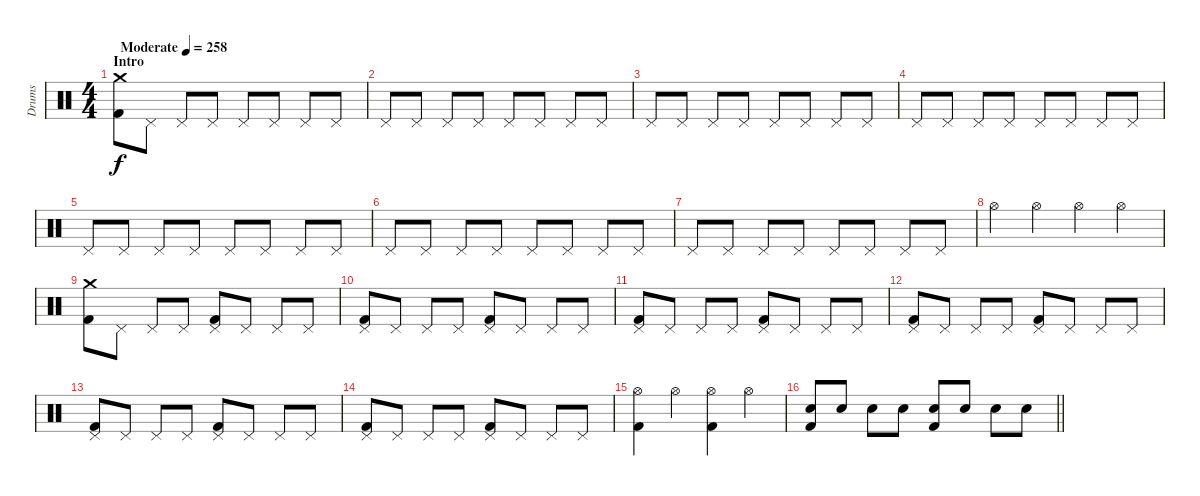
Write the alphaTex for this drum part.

\track ("Drums" "Drums") {instrument percussion}
\staff {score}
\articulation defaults
\ts (4 4)
\section ("" "Intro")
\tempo (258 "Moderate")
\clef neutral
\ks c
("Crash medium (hit)" "Kick (hit) 2").8{dy f} "Pedal Hi-Hat (hit)".8 "Pedal Hi-Hat (hit)".8 "Pedal Hi-Hat (hit)".8 "Pedal Hi-Hat (hit)".8 "Pedal Hi-Hat (hit)".8 "Pedal Hi-Hat (hit)".8 "Pedal Hi-Hat (hit)".8 |
"Pedal Hi-Hat (hit)".8 "Pedal Hi-Hat (hit)".8 "Pedal Hi-Hat (hit)".8 "Pedal Hi-Hat (hit)".8 "Pedal Hi-Hat (hit)".8 "Pedal Hi-Hat (hit)".8 "Pedal Hi-Hat (hit)".8 "Pedal Hi-Hat (hit)".8 |
"Pedal Hi-Hat (hit)".8 "Pedal Hi-Hat (hit)".8 "Pedal Hi-Hat (hit)".8 "Pedal Hi-Hat (hit)".8 "Pedal Hi-Hat (hit)".8 "Pedal Hi-Hat (hit)".8 "Pedal Hi-Hat (hit)".8 "Pedal Hi-Hat (hit)".8 |
"Pedal Hi-Hat (hit)".8 "Pedal Hi-Hat (hit)".8 "Pedal Hi-Hat (hit)".8 "Pedal Hi-Hat (hit)".8 "Pedal Hi-Hat (hit)".8 "Pedal Hi-Hat (hit)".8 "Pedal Hi-Hat (hit)".8 "Pedal Hi-Hat (hit)".8 |
"Pedal Hi-Hat (hit)".8 "Pedal Hi-Hat (hit)".8 "Pedal Hi-Hat (hit)".8 "Pedal Hi-Hat (hit)".8 "Pedal Hi-Hat (hit)".8 "Pedal Hi-Hat (hit)".8 "Pedal Hi-Hat (hit)".8 "Pedal Hi-Hat (hit)".8 |
"Pedal Hi-Hat (hit)".8 "Pedal Hi-Hat (hit)".8 "Pedal Hi-Hat (hit)".8 "Pedal Hi-Hat (hit)".8 "Pedal Hi-Hat (hit)".8 "Pedal Hi-Hat (hit)".8 "Pedal Hi-Hat (hit)".8 "Pedal Hi-Hat (hit)".8 |
"Pedal Hi-Hat (hit)".8 "Pedal Hi-Hat (hit)".8 "Pedal Hi-Hat (hit)".8 "Pedal Hi-Hat (hit)".8 "Pedal Hi-Hat (hit)".8 "Pedal Hi-Hat (hit)".8 "Pedal Hi-Hat (hit)".8 "Pedal Hi-Hat (hit)".8 |
"Hi-Hat (open)".4 "Hi-Hat (open)".4 "Hi-Hat (open)".4 "Hi-Hat (open)".4 |
("Crash medium (hit)" "Kick (hit) 2").8 "Pedal Hi-Hat (hit)".8 "Pedal Hi-Hat (hit)".8 "Pedal Hi-Hat (hit)".8 ("Pedal Hi-Hat (hit)" "Kick (hit) 2").8 "Pedal Hi-Hat (hit)".8 "Pedal Hi-Hat (hit)".8 "Pedal Hi-Hat (hit)".8 |
("Pedal Hi-Hat (hit)" "Kick (hit) 2").8 "Pedal Hi-Hat (hit)".8 "Pedal Hi-Hat (hit)".8 "Pedal Hi-Hat (hit)".8 ("Pedal Hi-Hat (hit)" "Kick (hit) 2").8 "Pedal Hi-Hat (hit)".8 "Pedal Hi-Hat (hit)".8 "Pedal Hi-Hat (hit)".8 |
("Pedal Hi-Hat (hit)" "Kick (hit) 2").8 "Pedal Hi-Hat (hit)".8 "Pedal Hi-Hat (hit)".8 "Pedal Hi-Hat (hit)".8 ("Pedal Hi-Hat (hit)" "Kick (hit) 2").8 "Pedal Hi-Hat (hit)".8 "Pedal Hi-Hat (hit)".8 "Pedal Hi-Hat (hit)".8 |
("Pedal Hi-Hat (hit)" "Kick (hit) 2").8 "Pedal Hi-Hat (hit)".8 "Pedal Hi-Hat (hit)".8 "Pedal Hi-Hat (hit)".8 ("Pedal Hi-Hat (hit)" "Kick (hit) 2").8 "Pedal Hi-Hat (hit)".8 "Pedal Hi-Hat (hit)".8 "Pedal Hi-Hat (hit)".8 |
("Pedal Hi-Hat (hit)" "Kick (hit) 2").8 "Pedal Hi-Hat (hit)".8 "Pedal Hi-Hat (hit)".8 "Pedal Hi-Hat (hit)".8 ("Pedal Hi-Hat (hit)" "Kick (hit) 2").8 "Pedal Hi-Hat (hit)".8 "Pedal Hi-Hat (hit)".8 "Pedal Hi-Hat (hit)".8 |
("Pedal Hi-Hat (hit)" "Kick (hit) 2").8 "Pedal Hi-Hat (hit)".8 "Pedal Hi-Hat (hit)".8 "Pedal Hi-Hat (hit)".8 ("Pedal Hi-Hat (hit)" "Kick (hit) 2").8 "Pedal Hi-Hat (hit)".8 "Pedal Hi-Hat (hit)".8 "Pedal Hi-Hat (hit)".8 |
("Hi-Hat (open)" "Kick (hit) 2").4 "Hi-Hat (open)".4 ("Hi-Hat (open)" "Kick (hit) 2").4 "Hi-Hat (open)".4 |
\barLineRight lightlight
("Electric Snare (hit)" "Kick (hit) 2").8 "Electric Snare (hit)".8 "Electric Snare (hit)".8 "Electric Snare (hit)".8 ("Electric Snare (hit)" "Kick (hit) 2").8 "Electric Snare (hit)".8 "Electric Snare (hit)".8 "Electric Snare (hit)".8
